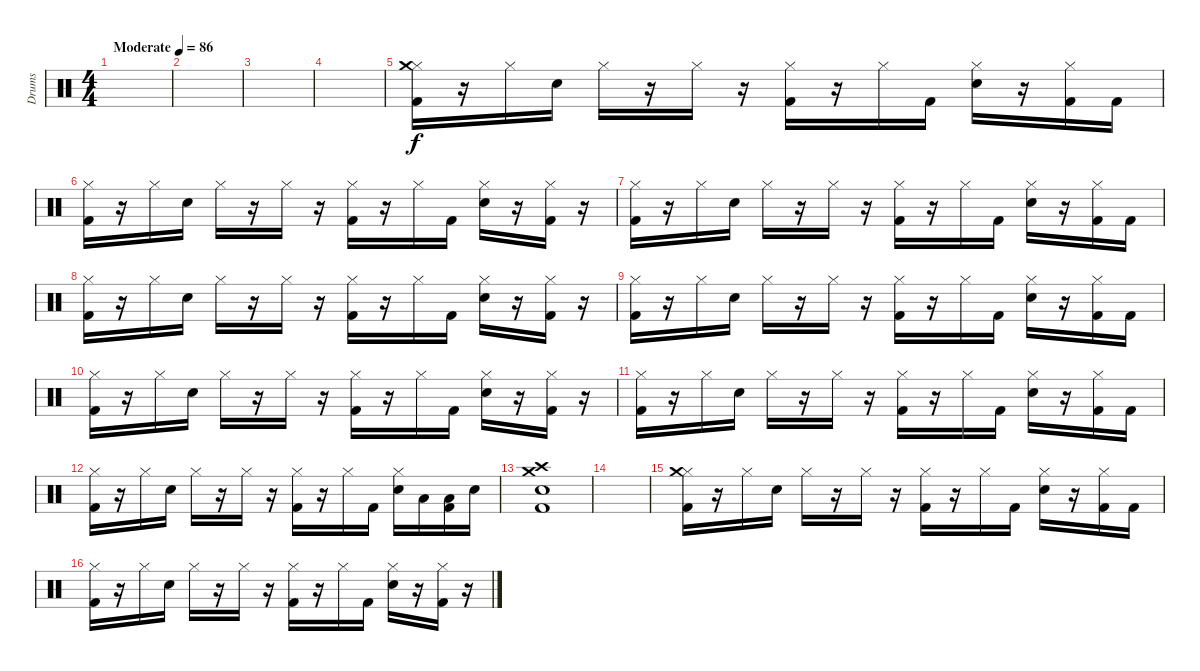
\track ("Drums" "Drums") {instrument percussion}
\staff {score}
\articulation defaults
\ts (4 4)
\tempo (86 "Moderate")
\clef neutral
\ks c
|
|
|
|
("Hi-Hat (closed)" "Crash medium (hit)" "Kick (hit) 2").16 r.16 "Hi-Hat (closed)".16 "Electric Snare (hit)".16 "Hi-Hat (closed)".16 r.16 "Hi-Hat (closed)".16 r.16 ("Hi-Hat (closed)" "Kick (hit) 2").16 r.16 "Hi-Hat (closed)".16 "Kick (hit) 2".16 ("Hi-Hat (closed)" "Electric Snare (hit)").16 r.16 ("Hi-Hat (closed)" "Kick (hit) 2").16 "Kick (hit) 2".16 |
("Hi-Hat (closed)" "Kick (hit) 2").16 r.16 "Hi-Hat (closed)".16 "Electric Snare (hit)".16 "Hi-Hat (closed)".16 r.16 "Hi-Hat (closed)".16 r.16 ("Hi-Hat (closed)" "Kick (hit) 2").16 r.16 "Hi-Hat (closed)".16 "Kick (hit) 2".16 ("Hi-Hat (closed)" "Electric Snare (hit)").16 r.16 ("Hi-Hat (closed)" "Kick (hit) 2").16 r.16 |
("Hi-Hat (closed)" "Kick (hit) 2").16 r.16 "Hi-Hat (closed)".16 "Electric Snare (hit)".16 "Hi-Hat (closed)".16 r.16 "Hi-Hat (closed)".16 r.16 ("Hi-Hat (closed)" "Kick (hit) 2").16 r.16 "Hi-Hat (closed)".16 "Kick (hit) 2".16 ("Hi-Hat (closed)" "Electric Snare (hit)").16 r.16 ("Hi-Hat (closed)" "Kick (hit) 2").16 "Kick (hit) 2".16 |
("Hi-Hat (closed)" "Kick (hit) 2").16 r.16 "Hi-Hat (closed)".16 "Electric Snare (hit)".16 "Hi-Hat (closed)".16 r.16 "Hi-Hat (closed)".16 r.16 ("Hi-Hat (closed)" "Kick (hit) 2").16 r.16 "Hi-Hat (closed)".16 "Kick (hit) 2".16 ("Hi-Hat (closed)" "Electric Snare (hit)").16 r.16 ("Hi-Hat (closed)" "Kick (hit) 2").16 r.16 |
("Hi-Hat (closed)" "Kick (hit) 2").16 r.16 "Hi-Hat (closed)".16 "Electric Snare (hit)".16 "Hi-Hat (closed)".16 r.16 "Hi-Hat (closed)".16 r.16 ("Hi-Hat (closed)" "Kick (hit) 2").16 r.16 "Hi-Hat (closed)".16 "Kick (hit) 2".16 ("Hi-Hat (closed)" "Electric Snare (hit)").16 r.16 ("Hi-Hat (closed)" "Kick (hit) 2").16 "Kick (hit) 2".16 |
("Hi-Hat (closed)" "Kick (hit) 2").16 r.16 "Hi-Hat (closed)".16 "Electric Snare (hit)".16 "Hi-Hat (closed)".16 r.16 "Hi-Hat (closed)".16 r.16 ("Hi-Hat (closed)" "Kick (hit) 2").16 r.16 "Hi-Hat (closed)".16 "Kick (hit) 2".16 ("Hi-Hat (closed)" "Electric Snare (hit)").16 r.16 ("Hi-Hat (closed)" "Kick (hit) 2").16 r.16 |
("Hi-Hat (closed)" "Kick (hit) 2").16 r.16 "Hi-Hat (closed)".16 "Electric Snare (hit)".16 "Hi-Hat (closed)".16 r.16 "Hi-Hat (closed)".16 r.16 ("Hi-Hat (closed)" "Kick (hit) 2").16 r.16 "Hi-Hat (closed)".16 "Kick (hit) 2".16 ("Hi-Hat (closed)" "Electric Snare (hit)").16 r.16 ("Hi-Hat (closed)" "Kick (hit) 2").16 "Kick (hit) 2".16 |
("Hi-Hat (closed)" "Kick (hit) 2").16 r.16 "Hi-Hat (closed)".16 "Electric Snare (hit)".16 "Hi-Hat (closed)".16 r.16 "Hi-Hat (closed)".16 r.16 ("Hi-Hat (closed)" "Kick (hit) 2").16 r.16 "Hi-Hat (closed)".16 "Kick (hit) 2".16 ("Hi-Hat (closed)" "Electric Snare (hit)").16 "Low Tom (hit)".16 ("Low Floor Tom (hit)" "Kick (hit) 2").16 "Electric Snare (hit)".16 |
("Crash medium (hit)" "Crash high (hit)" "Electric Snare (hit)" "Kick (hit) 2").1 |
|
("Hi-Hat (closed)" "Crash medium (hit)" "Kick (hit) 2").16 r.16 "Hi-Hat (closed)".16 "Electric Snare (hit)".16 "Hi-Hat (closed)".16 r.16 "Hi-Hat (closed)".16 r.16 ("Hi-Hat (closed)" "Kick (hit) 2").16 r.16 "Hi-Hat (closed)".16 "Kick (hit) 2".16 ("Hi-Hat (closed)" "Electric Snare (hit)").16 r.16 ("Hi-Hat (closed)" "Kick (hit) 2").16 "Kick (hit) 2".16 |
("Hi-Hat (closed)" "Kick (hit) 2").16 r.16 "Hi-Hat (closed)".16 "Electric Snare (hit)".16 "Hi-Hat (closed)".16 r.16 "Hi-Hat (closed)".16 r.16 ("Hi-Hat (closed)" "Kick (hit) 2").16 r.16 "Hi-Hat (closed)".16 "Kick (hit) 2".16 ("Hi-Hat (closed)" "Electric Snare (hit)").16 r.16 ("Hi-Hat (closed)" "Kick (hit) 2").16 r.16
